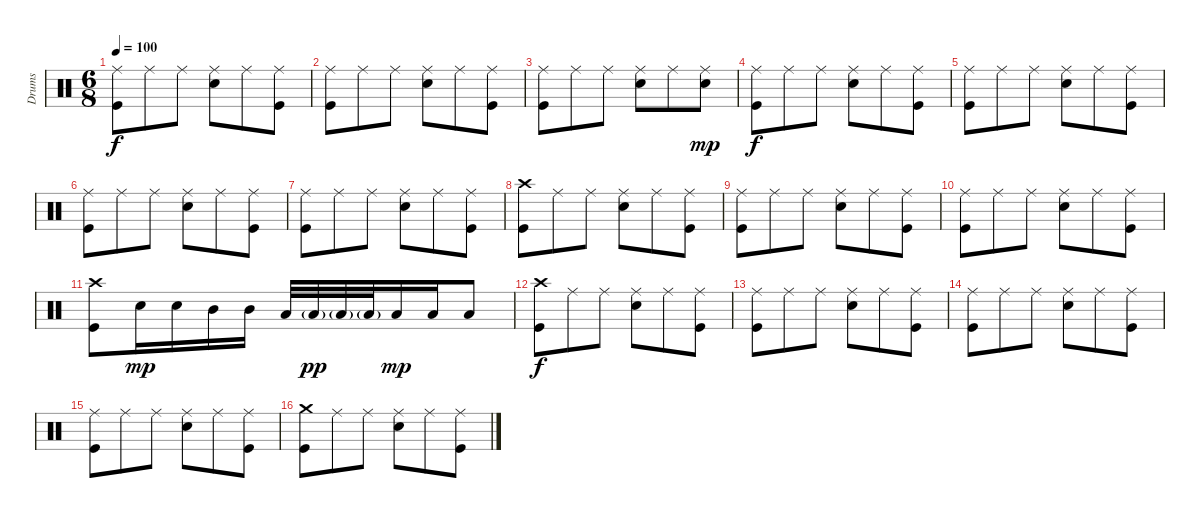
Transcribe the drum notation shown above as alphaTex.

\track ("Drums" "Drums") {instrument percussion}
\staff {score}
\articulation defaults
\ts (6 8)
\tempo 100
\clef neutral
\ks c
("Ride (middle)" "Kick (hit)").8{dy f} "Ride (middle)".8 "Ride (middle)".8 ("Ride (middle)" "Electric Snare (hit)").8 "Ride (middle)".8 ("Ride (middle)" "Kick (hit)").8 |
("Ride (middle)" "Kick (hit)").8 "Ride (middle)".8 "Ride (middle)".8 ("Ride (middle)" "Electric Snare (hit)").8 "Ride (middle)".8 ("Ride (middle)" "Kick (hit)").8 |
("Ride (middle)" "Kick (hit)").8 "Ride (middle)".8 "Ride (middle)".8 ("Ride (middle)" "Electric Snare (hit)").8 "Ride (middle)".8 ("Ride (middle)" "Electric Snare (hit)").8{dy mp} |
("Ride (middle)" "Kick (hit)").8{dy f} "Ride (middle)".8 "Ride (middle)".8 ("Ride (middle)" "Electric Snare (hit)").8 "Ride (middle)".8 ("Ride (middle)" "Kick (hit)").8 |
("Ride (middle)" "Kick (hit)").8 "Ride (middle)".8 "Ride (middle)".8 ("Ride (middle)" "Electric Snare (hit)").8 "Ride (middle)".8 ("Ride (middle)" "Kick (hit)").8 |
("Ride (middle)" "Kick (hit)").8 "Ride (middle)".8 "Ride (middle)".8 ("Ride (middle)" "Electric Snare (hit)").8 "Ride (middle)".8 ("Ride (middle)" "Kick (hit)").8 |
("Ride (middle)" "Kick (hit)").8 "Ride (middle)".8 "Ride (middle)".8 ("Ride (middle)" "Electric Snare (hit)").8 "Ride (middle)".8 ("Ride (middle)" "Kick (hit)").8 |
("Crash high (hit)" "Kick (hit)").8 "Ride (middle)".8 "Ride (middle)".8 ("Ride (middle)" "Electric Snare (hit)").8 "Ride (middle)".8 ("Ride (middle)" "Kick (hit)").8 |
("Ride (middle)" "Kick (hit)").8 "Ride (middle)".8 "Ride (middle)".8 ("Ride (middle)" "Electric Snare (hit)").8 "Ride (middle)".8 ("Ride (middle)" "Kick (hit)").8 |
("Ride (middle)" "Kick (hit)").8 "Ride (middle)".8 "Ride (middle)".8 ("Ride (middle)" "Electric Snare (hit)").8 "Ride (middle)".8 ("Ride (middle)" "Kick (hit)").8 |
("Crash high (hit)" "Kick (hit)").8 "Electric Snare (hit)".16{dy mp} "Electric Snare (hit)".16 "Mid Tom (hit)".16 "Mid Tom (hit)".16 "Low Tom (hit)".32 "Low Tom (hit)"{g}.32{dy pp} "Low Tom (hit)"{g}.32 "Low Tom (hit)"{g}.32 "Low Tom (hit)".16{dy mp} "Low Tom (hit)".16 "Low Floor Tom (hit)".8 |
("Crash high (hit)" "Kick (hit)").8{dy f} "Ride (middle)".8 "Ride (middle)".8 ("Ride (middle)" "Electric Snare (hit)").8 "Ride (middle)".8 ("Ride (middle)" "Kick (hit)").8 |
("Ride (middle)" "Kick (hit)").8 "Ride (middle)".8 "Ride (middle)".8 ("Ride (middle)" "Electric Snare (hit)").8 "Ride (middle)".8 ("Ride (middle)" "Kick (hit)").8 |
("Ride (middle)" "Kick (hit)").8 "Ride (middle)".8 "Ride (middle)".8 ("Ride (middle)" "Electric Snare (hit)").8 "Ride (middle)".8 ("Ride (middle)" "Kick (hit)").8 |
("Ride (middle)" "Kick (hit)").8 "Ride (middle)".8 "Ride (middle)".8 ("Ride (middle)" "Electric Snare (hit)").8 "Ride (middle)".8 ("Ride (middle)" "Kick (hit)").8 |
("Crash medium (hit)" "Kick (hit)").8 "Ride (middle)".8 "Ride (middle)".8 ("Ride (middle)" "Electric Snare (hit)").8 "Ride (middle)".8 ("Ride (middle)" "Kick (hit)").8
